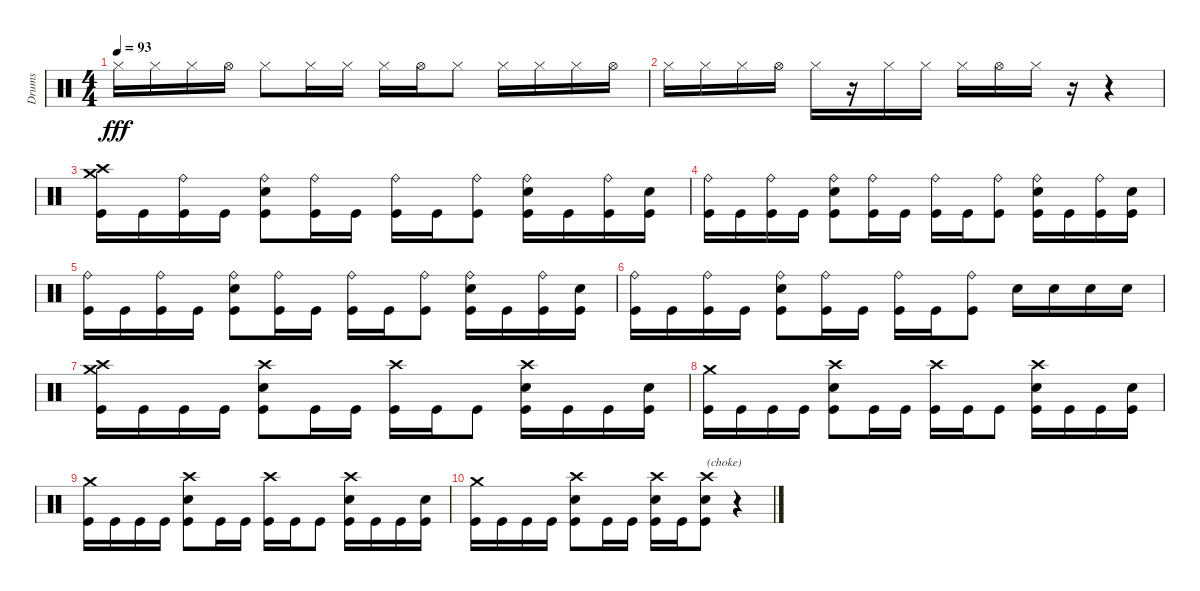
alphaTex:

\track ("Drums" "Drums") {instrument percussion}
\staff {score}
\articulation defaults
\ts (4 4)
\tempo 93
\clef neutral
\ks c "Hi-Hat (closed)".16{dy fff} "Hi-Hat (closed)".16 "Hi-Hat (closed)".16 "Hi-Hat (open)".16 "Hi-Hat (closed)".8 "Hi-Hat (closed)".16 "Hi-Hat (closed)".16 "Hi-Hat (closed)".16 "Hi-Hat (open)".16 "Hi-Hat (closed)".8 "Hi-Hat (closed)".16 "Hi-Hat (closed)".16 "Hi-Hat (closed)".16 "Hi-Hat (open)".16
|
"Hi-Hat (closed)".16 "Hi-Hat (closed)".16 "Hi-Hat (closed)".16 "Hi-Hat (open)".16 "Hi-Hat (closed)".16 r.16 "Hi-Hat (closed)".16 "Hi-Hat (closed)".16 "Hi-Hat (closed)".16 "Hi-Hat (open)".16 "Hi-Hat (closed)".16 r.16 r.4 |
("Crash high (hit)" "Crash medium (hit)" "Kick (hit)").16 "Kick (hit)".16 ("Ride (bell)" "Kick (hit)").16 "Kick (hit)".16 ("Ride (bell)" "Snare (hit) 2" "Kick (hit)").8 ("Ride (bell)" "Kick (hit)").16 "Kick (hit)".16 ("Ride (bell)" "Kick (hit)").16 "Kick (hit)".16 ("Ride (bell)" "Kick (hit)").8 ("Ride (bell)" "Snare (hit) 2" "Kick (hit)").16 "Kick (hit)".16 ("Ride (bell)" "Kick (hit)").16 ("Snare (hit) 2" "Kick (hit)").16 |
("Ride (bell)" "Kick (hit)").16 "Kick (hit)".16 ("Ride (bell)" "Kick (hit)").16 "Kick (hit)".16 ("Ride (bell)" "Snare (hit) 2" "Kick (hit)").8 ("Ride (bell)" "Kick (hit)").16 "Kick (hit)".16 ("Ride (bell)" "Kick (hit)").16 "Kick (hit)".16 ("Ride (bell)" "Kick (hit)").8 ("Ride (bell)" "Snare (hit) 2" "Kick (hit)").16 "Kick (hit)".16 ("Ride (bell)" "Kick (hit)").16 ("Snare (hit) 2" "Kick (hit)").16 |
("Ride (bell)" "Kick (hit)").16 "Kick (hit)".16 ("Ride (bell)" "Kick (hit)").16 "Kick (hit)".16 ("Ride (bell)" "Snare (hit) 2" "Kick (hit)").8 ("Ride (bell)" "Kick (hit)").16 "Kick (hit)".16 ("Ride (bell)" "Kick (hit)").16 "Kick (hit)".16 ("Ride (bell)" "Kick (hit)").8 ("Ride (bell)" "Snare (hit) 2" "Kick (hit)").16 "Kick (hit)".16 ("Ride (bell)" "Kick (hit)").16 ("Snare (hit) 2" "Kick (hit)").16 |
("Ride (bell)" "Kick (hit)").16 "Kick (hit)".16 ("Ride (bell)" "Kick (hit)").16 "Kick (hit)".16 ("Ride (bell)" "Snare (hit) 2" "Kick (hit)").8 ("Ride (bell)" "Kick (hit)").16 "Kick (hit)".16 ("Ride (bell)" "Kick (hit)").16 "Kick (hit)".16 ("Ride (bell)" "Kick (hit)").8 "Electric Snare (hit)".16 "Electric Snare (hit)".16 "Electric Snare (hit)".16 "Electric Snare (hit)".16 |
("Crash medium (hit)" "Crash high (hit)" "Kick (hit)").16 "Kick (hit)".16 "Kick (hit)".16 "Kick (hit)".16 ("Crash high (hit)" "Snare (hit) 2" "Kick (hit)").8 "Kick (hit)".16 "Kick (hit)".16 ("Crash high (hit)" "Kick (hit)").16 "Kick (hit)".16 "Kick (hit)".8 ("Crash high (hit)" "Snare (hit) 2" "Kick (hit)").16 "Kick (hit)".16 "Kick (hit)".16 ("Snare (hit) 2" "Kick (hit)").16 |
("Crash medium (hit)" "Kick (hit)").16 "Kick (hit)".16 "Kick (hit)".16 "Kick (hit)".16 ("Crash high (hit)" "Snare (hit) 2" "Kick (hit)").8 "Kick (hit)".16 "Kick (hit)".16 ("Crash high (hit)" "Kick (hit)").16 "Kick (hit)".16 "Kick (hit)".8 ("Crash high (hit)" "Snare (hit) 2" "Kick (hit)").16 "Kick (hit)".16 "Kick (hit)".16 ("Snare (hit) 2" "Kick (hit)").16 |
("Crash medium (hit)" "Kick (hit)").16 "Kick (hit)".16 "Kick (hit)".16 "Kick (hit)".16 ("Crash high (hit)" "Snare (hit) 2" "Kick (hit)").8 "Kick (hit)".16 "Kick (hit)".16 ("Crash high (hit)" "Kick (hit)").16 "Kick (hit)".16 "Kick (hit)".8 ("Crash high (hit)" "Snare (hit) 2" "Kick (hit)").16 "Kick (hit)".16 "Kick (hit)".16 ("Snare (hit) 2" "Kick (hit)").16 |
("Crash medium (hit)" "Kick (hit)").16{beam merge} "Kick (hit)".16{beam merge} "Kick (hit)".16{beam merge} "Kick (hit)".16 ("Crash high (hit)" "Snare (hit) 2" "Kick (hit)").8{beam merge} "Kick (hit)".16{beam merge} "Kick (hit)".16 ("Crash high (hit)" "Snare (hit) 2" "Kick (hit)").16{beam merge} "Kick (hit)".16{beam merge} ("Crash high (hit)" "Snare (hit) 2" "Kick (hit)").8{txt "(choke)" volume 0} r.4
